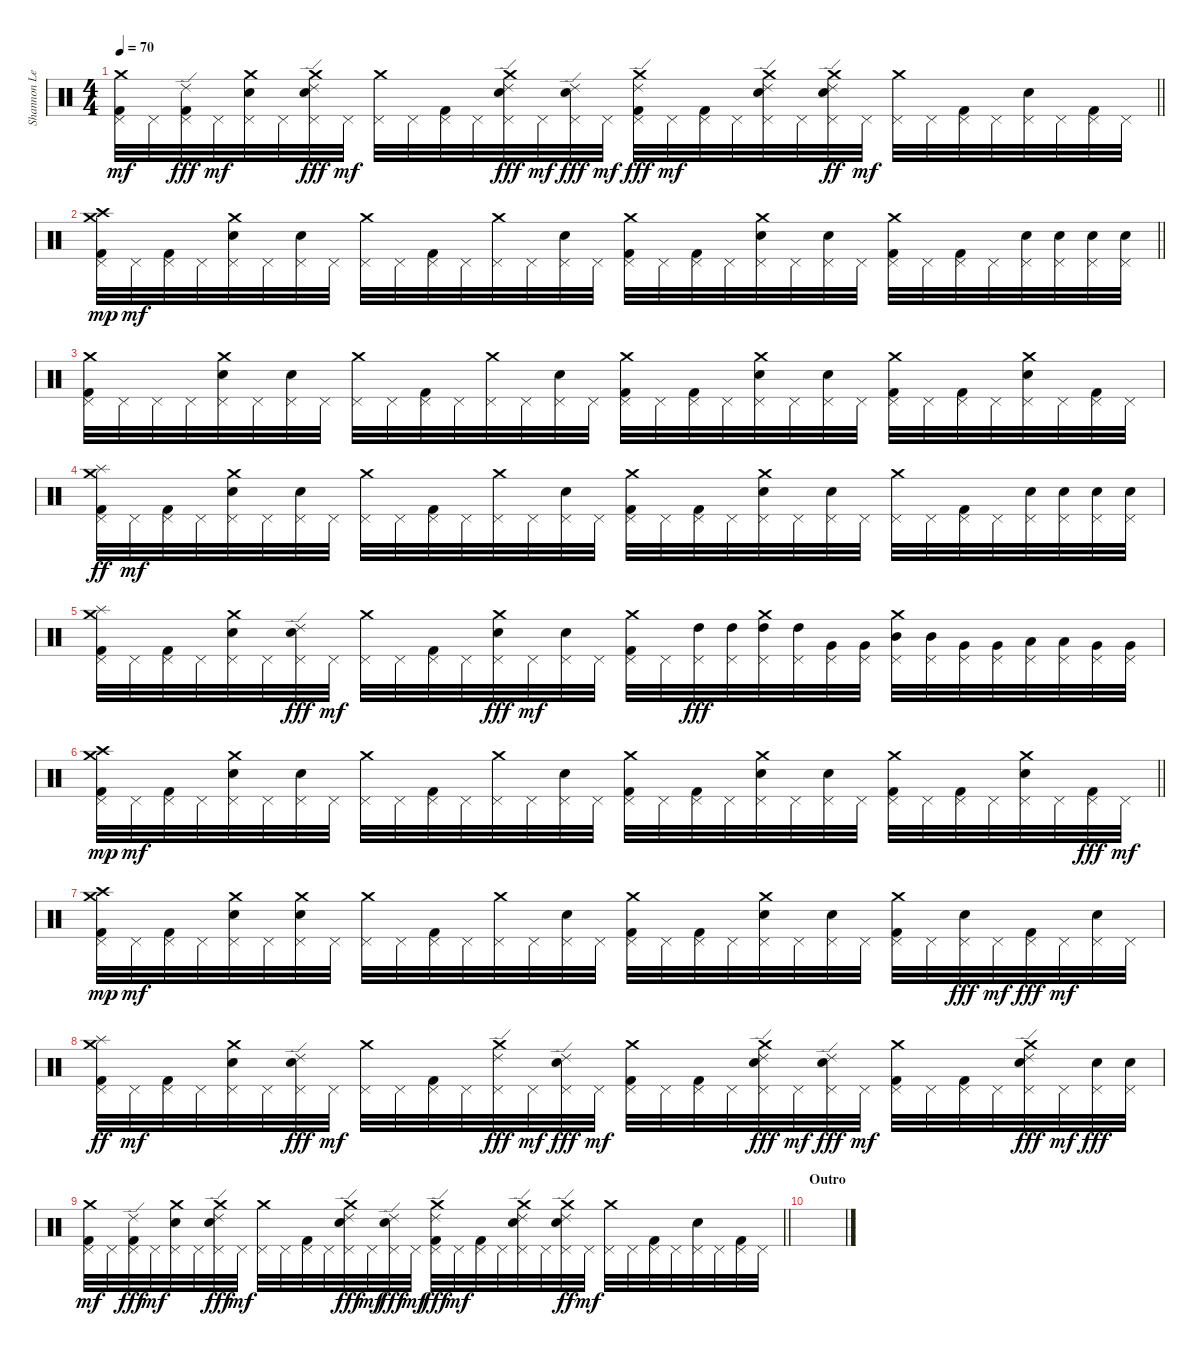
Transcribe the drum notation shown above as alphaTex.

\track ("Shannon Leto - Drums" "Shannon Le") {instrument percussion}
\staff {score}
\articulation defaults
\ts (4 4)
\tempo 70
\clef neutral
\barLineRight lightlight
\ks c
("Crash medium (hit)" "Pedal Hi-Hat (hit)" "Kick (hit) 2").32{dy mf} "Pedal Hi-Hat (hit)".32 ("Pedal Hi-Hat (hit)" "Ride (edge) 2" "Kick (hit) 2").32{dy fff} "Pedal Hi-Hat (hit)".32{dy mf} ("Crash medium (hit)" "Pedal Hi-Hat (hit)" "Electric Snare (hit)").32 "Pedal Hi-Hat (hit)".32 ("Crash medium (hit)" "Pedal Hi-Hat (hit)" "Electric Snare (hit)" "Ride (edge) 2").32{dy fff} "Pedal Hi-Hat (hit)".32{dy mf} ("Crash medium (hit)" "Pedal Hi-Hat (hit)").32 "Pedal Hi-Hat (hit)".32 ("Pedal Hi-Hat (hit)" "Kick (hit) 2").32 "Pedal Hi-Hat (hit)".32 ("Crash medium (hit)" "Pedal Hi-Hat (hit)" "Electric Snare (hit)" "Ride (edge) 2").32{dy fff} "Pedal Hi-Hat (hit)".32{dy mf} ("Pedal Hi-Hat (hit)" "Electric Snare (hit)" "Ride (edge) 2").32{dy fff} "Pedal Hi-Hat (hit)".32{dy mf} ("Crash medium (hit)" "Pedal Hi-Hat (hit)" "Ride (edge) 2" "Kick (hit) 2").32{dy fff} "Pedal Hi-Hat (hit)".32{dy mf} ("Pedal Hi-Hat (hit)" "Kick (hit) 2").32 "Pedal Hi-Hat (hit)".32 ("Crash medium (hit)" "Pedal Hi-Hat (hit)" "Electric Snare (hit)" "Ride (edge) 2").32 "Pedal Hi-Hat (hit)".32 ("Crash medium (hit)" "Pedal Hi-Hat (hit)" "Electric Snare (hit)" "Ride (edge) 2").32{dy ff} "Pedal Hi-Hat (hit)".32{dy mf} ("Crash medium (hit)" "Pedal Hi-Hat (hit)").32 "Pedal Hi-Hat (hit)".32 ("Pedal Hi-Hat (hit)" "Kick (hit) 2").32 "Pedal Hi-Hat (hit)".32 ("Pedal Hi-Hat (hit)" "Electric Snare (hit)").32 "Pedal Hi-Hat (hit)".32 ("Pedal Hi-Hat (hit)" "Kick (hit) 2").32 "Pedal Hi-Hat (hit)".32 |
\section ("" "")
\barLineRight lightlight
("Crash medium (hit)" "Pedal Hi-Hat (hit)" "Crash high (hit)" "Kick (hit) 2").32{dy mp} "Pedal Hi-Hat (hit)".32{dy mf} ("Pedal Hi-Hat (hit)" "Kick (hit) 2").32 "Pedal Hi-Hat (hit)".32 ("Crash medium (hit)" "Pedal Hi-Hat (hit)" "Electric Snare (hit)").32 "Pedal Hi-Hat (hit)".32 ("Pedal Hi-Hat (hit)" "Electric Snare (hit)").32 "Pedal Hi-Hat (hit)".32 ("Crash medium (hit)" "Pedal Hi-Hat (hit)").32 "Pedal Hi-Hat (hit)".32 ("Pedal Hi-Hat (hit)" "Kick (hit) 2").32 "Pedal Hi-Hat (hit)".32 ("Crash medium (hit)" "Pedal Hi-Hat (hit)").32 "Pedal Hi-Hat (hit)".32 ("Pedal Hi-Hat (hit)" "Electric Snare (hit)").32 "Pedal Hi-Hat (hit)".32 ("Crash medium (hit)" "Pedal Hi-Hat (hit)" "Kick (hit) 2").32 "Pedal Hi-Hat (hit)".32 ("Pedal Hi-Hat (hit)" "Kick (hit) 2").32 "Pedal Hi-Hat (hit)".32 ("Crash medium (hit)" "Pedal Hi-Hat (hit)" "Electric Snare (hit)").32 "Pedal Hi-Hat (hit)".32 ("Pedal Hi-Hat (hit)" "Electric Snare (hit)").32 "Pedal Hi-Hat (hit)".32 ("Crash medium (hit)" "Pedal Hi-Hat (hit)" "Kick (hit) 2").32 "Pedal Hi-Hat (hit)".32 ("Pedal Hi-Hat (hit)" "Kick (hit) 2").32 "Pedal Hi-Hat (hit)".32 ("Pedal Hi-Hat (hit)" "Electric Snare (hit)").32 ("Pedal Hi-Hat (hit)" "Electric Snare (hit)").32 ("Pedal Hi-Hat (hit)" "Electric Snare (hit)").32 ("Pedal Hi-Hat (hit)" "Electric Snare (hit)").32 |
("Crash medium (hit)" "Pedal Hi-Hat (hit)" "Kick (hit) 2").32 "Pedal Hi-Hat (hit)".32 "Pedal Hi-Hat (hit)".32 "Pedal Hi-Hat (hit)".32 ("Crash medium (hit)" "Pedal Hi-Hat (hit)" "Electric Snare (hit)").32 "Pedal Hi-Hat (hit)".32 ("Pedal Hi-Hat (hit)" "Electric Snare (hit)").32 "Pedal Hi-Hat (hit)".32 ("Crash medium (hit)" "Pedal Hi-Hat (hit)").32 "Pedal Hi-Hat (hit)".32 ("Pedal Hi-Hat (hit)" "Kick (hit) 2").32 "Pedal Hi-Hat (hit)".32 ("Crash medium (hit)" "Pedal Hi-Hat (hit)").32 "Pedal Hi-Hat (hit)".32 ("Pedal Hi-Hat (hit)" "Electric Snare (hit)").32 "Pedal Hi-Hat (hit)".32 ("Crash medium (hit)" "Pedal Hi-Hat (hit)" "Kick (hit) 2").32 "Pedal Hi-Hat (hit)".32 ("Pedal Hi-Hat (hit)" "Kick (hit) 2").32 "Pedal Hi-Hat (hit)".32 ("Crash medium (hit)" "Pedal Hi-Hat (hit)" "Electric Snare (hit)").32 "Pedal Hi-Hat (hit)".32 ("Pedal Hi-Hat (hit)" "Electric Snare (hit)").32 "Pedal Hi-Hat (hit)".32 ("Crash medium (hit)" "Pedal Hi-Hat (hit)" "Kick (hit) 2").32 "Pedal Hi-Hat (hit)".32 ("Pedal Hi-Hat (hit)" "Kick (hit) 2").32 "Pedal Hi-Hat (hit)".32 ("Crash medium (hit)" "Pedal Hi-Hat (hit)" "Electric Snare (hit)").32 "Pedal Hi-Hat (hit)".32 ("Pedal Hi-Hat (hit)" "Kick (hit) 2").32 "Pedal Hi-Hat (hit)".32 |
("Crash medium (hit)" "Pedal Hi-Hat (hit)" "Splash (hit)" "Kick (hit) 2").32{dy ff} "Pedal Hi-Hat (hit)".32{dy mf} ("Pedal Hi-Hat (hit)" "Kick (hit) 2").32 "Pedal Hi-Hat (hit)".32 ("Crash medium (hit)" "Pedal Hi-Hat (hit)" "Electric Snare (hit)").32 "Pedal Hi-Hat (hit)".32 ("Pedal Hi-Hat (hit)" "Electric Snare (hit)").32 "Pedal Hi-Hat (hit)".32 ("Crash medium (hit)" "Pedal Hi-Hat (hit)").32 "Pedal Hi-Hat (hit)".32 ("Pedal Hi-Hat (hit)" "Kick (hit) 2").32 "Pedal Hi-Hat (hit)".32 ("Crash medium (hit)" "Pedal Hi-Hat (hit)").32 "Pedal Hi-Hat (hit)".32 ("Pedal Hi-Hat (hit)" "Electric Snare (hit)").32 "Pedal Hi-Hat (hit)".32 ("Crash medium (hit)" "Pedal Hi-Hat (hit)" "Kick (hit) 2").32 "Pedal Hi-Hat (hit)".32 ("Pedal Hi-Hat (hit)" "Kick (hit) 2").32 "Pedal Hi-Hat (hit)".32 ("Crash medium (hit)" "Pedal Hi-Hat (hit)" "Electric Snare (hit)").32 "Pedal Hi-Hat (hit)".32 ("Pedal Hi-Hat (hit)" "Electric Snare (hit)").32 "Pedal Hi-Hat (hit)".32 ("Crash medium (hit)" "Pedal Hi-Hat (hit)").32 "Pedal Hi-Hat (hit)".32 ("Pedal Hi-Hat (hit)" "Kick (hit) 2").32 "Pedal Hi-Hat (hit)".32 ("Pedal Hi-Hat (hit)" "Electric Snare (hit)").32 ("Pedal Hi-Hat (hit)" "Electric Snare (hit)").32 ("Pedal Hi-Hat (hit)" "Electric Snare (hit)").32 ("Pedal Hi-Hat (hit)" "Electric Snare (hit)").32 |
("Crash medium (hit)" "Pedal Hi-Hat (hit)" "Splash (hit)" "Kick (hit) 2").32 "Pedal Hi-Hat (hit)".32 ("Pedal Hi-Hat (hit)" "Kick (hit) 2").32 "Pedal Hi-Hat (hit)".32 ("Crash medium (hit)" "Pedal Hi-Hat (hit)" "Electric Snare (hit)").32 "Pedal Hi-Hat (hit)".32 ("Pedal Hi-Hat (hit)" "Electric Snare (hit)" "Ride (edge) 2").32{dy fff} "Pedal Hi-Hat (hit)".32{dy mf} ("Crash medium (hit)" "Pedal Hi-Hat (hit)").32 "Pedal Hi-Hat (hit)".32 ("Pedal Hi-Hat (hit)" "Kick (hit) 2").32 "Pedal Hi-Hat (hit)".32 ("Crash medium (hit)" "Pedal Hi-Hat (hit)" "Electric Snare (hit)").32{dy fff} "Pedal Hi-Hat (hit)".32{dy mf} ("Pedal Hi-Hat (hit)" "Electric Snare (hit)").32 "Pedal Hi-Hat (hit)".32 ("Crash medium (hit)" "Pedal Hi-Hat (hit)" "Kick (hit) 2").32 "Pedal Hi-Hat (hit)".32 ("Pedal Hi-Hat (hit)" "High Tom (hit)").32{dy fff} ("Pedal Hi-Hat (hit)" "High Tom (hit)").32 ("Crash medium (hit)" "Pedal Hi-Hat (hit)" "High Tom (hit)").32 ("Pedal Hi-Hat (hit)" "High Tom (hit)").32 ("Pedal Hi-Hat (hit)" "Very Low Tom (hit)").32 ("Pedal Hi-Hat (hit)" "Very Low Tom (hit)").32 ("Crash medium (hit)" "Pedal Hi-Hat (hit)" "Mid Tom (hit)").32 ("Pedal Hi-Hat (hit)" "Mid Tom (hit)").32 ("Pedal Hi-Hat (hit)" "Very Low Tom (hit)").32 ("Pedal Hi-Hat (hit)" "Very Low Tom (hit)").32 ("Pedal Hi-Hat (hit)" "Low Tom (hit)").32 ("Pedal Hi-Hat (hit)" "Low Tom (hit)").32 ("Pedal Hi-Hat (hit)" "Very Low Tom (hit)").32 ("Pedal Hi-Hat (hit)" "Very Low Tom (hit)").32 |
\barLineRight lightlight
("Crash medium (hit)" "Pedal Hi-Hat (hit)" "Crash high (hit)" "Kick (hit) 2").32{dy mp} "Pedal Hi-Hat (hit)".32{dy mf} ("Pedal Hi-Hat (hit)" "Kick (hit) 2").32 "Pedal Hi-Hat (hit)".32 ("Crash medium (hit)" "Pedal Hi-Hat (hit)" "Electric Snare (hit)").32 "Pedal Hi-Hat (hit)".32 ("Pedal Hi-Hat (hit)" "Electric Snare (hit)").32 "Pedal Hi-Hat (hit)".32 ("Crash medium (hit)" "Pedal Hi-Hat (hit)").32 "Pedal Hi-Hat (hit)".32 ("Pedal Hi-Hat (hit)" "Kick (hit) 2").32 "Pedal Hi-Hat (hit)".32 ("Crash medium (hit)" "Pedal Hi-Hat (hit)").32 "Pedal Hi-Hat (hit)".32 ("Pedal Hi-Hat (hit)" "Electric Snare (hit)").32 "Pedal Hi-Hat (hit)".32 ("Crash medium (hit)" "Pedal Hi-Hat (hit)" "Kick (hit) 2").32 "Pedal Hi-Hat (hit)".32 ("Pedal Hi-Hat (hit)" "Kick (hit) 2").32 "Pedal Hi-Hat (hit)".32 ("Crash medium (hit)" "Pedal Hi-Hat (hit)" "Electric Snare (hit)").32 "Pedal Hi-Hat (hit)".32 ("Pedal Hi-Hat (hit)" "Electric Snare (hit)").32 "Pedal Hi-Hat (hit)".32 ("Crash medium (hit)" "Pedal Hi-Hat (hit)" "Kick (hit) 2").32 "Pedal Hi-Hat (hit)".32 ("Pedal Hi-Hat (hit)" "Kick (hit) 2").32 "Pedal Hi-Hat (hit)".32 ("Crash medium (hit)" "Pedal Hi-Hat (hit)" "Electric Snare (hit)").32 "Pedal Hi-Hat (hit)".32 ("Pedal Hi-Hat (hit)" "Kick (hit) 2").32{dy fff} "Pedal Hi-Hat (hit)".32{dy mf} |
("Crash medium (hit)" "Pedal Hi-Hat (hit)" "Crash high (hit)" "Kick (hit) 2").32{dy mp} "Pedal Hi-Hat (hit)".32{dy mf} ("Pedal Hi-Hat (hit)" "Kick (hit) 2").32 "Pedal Hi-Hat (hit)".32 ("Crash medium (hit)" "Pedal Hi-Hat (hit)" "Electric Snare (hit)").32 "Pedal Hi-Hat (hit)".32 ("Crash medium (hit)" "Pedal Hi-Hat (hit)" "Electric Snare (hit)").32 "Pedal Hi-Hat (hit)".32 ("Crash medium (hit)" "Pedal Hi-Hat (hit)").32 "Pedal Hi-Hat (hit)".32 ("Pedal Hi-Hat (hit)" "Kick (hit) 2").32 "Pedal Hi-Hat (hit)".32 ("Crash medium (hit)" "Pedal Hi-Hat (hit)").32 "Pedal Hi-Hat (hit)".32 ("Pedal Hi-Hat (hit)" "Electric Snare (hit)").32 "Pedal Hi-Hat (hit)".32 ("Crash medium (hit)" "Pedal Hi-Hat (hit)" "Kick (hit) 2").32 "Pedal Hi-Hat (hit)".32 ("Pedal Hi-Hat (hit)" "Kick (hit) 2").32 "Pedal Hi-Hat (hit)".32 ("Crash medium (hit)" "Pedal Hi-Hat (hit)" "Electric Snare (hit)").32 "Pedal Hi-Hat (hit)".32 ("Pedal Hi-Hat (hit)" "Electric Snare (hit)").32 "Pedal Hi-Hat (hit)".32 ("Crash medium (hit)" "Pedal Hi-Hat (hit)" "Kick (hit) 2").32 "Pedal Hi-Hat (hit)".32 ("Pedal Hi-Hat (hit)" "Electric Snare (hit)").32{dy fff} "Pedal Hi-Hat (hit)".32{dy mf} ("Pedal Hi-Hat (hit)" "Kick (hit) 2").32{dy fff} "Pedal Hi-Hat (hit)".32{dy mf} ("Pedal Hi-Hat (hit)" "Electric Snare (hit)").32 "Pedal Hi-Hat (hit)".32 |
("Crash medium (hit)" "Pedal Hi-Hat (hit)" "Splash (hit)" "Kick (hit) 2").32{dy ff} "Pedal Hi-Hat (hit)".32{dy mf} ("Pedal Hi-Hat (hit)" "Kick (hit) 2").32 "Pedal Hi-Hat (hit)".32 ("Crash medium (hit)" "Pedal Hi-Hat (hit)" "Electric Snare (hit)").32 "Pedal Hi-Hat (hit)".32 ("Pedal Hi-Hat (hit)" "Electric Snare (hit)" "Ride (edge) 2").32{dy fff} "Pedal Hi-Hat (hit)".32{dy mf} ("Crash medium (hit)" "Pedal Hi-Hat (hit)").32 "Pedal Hi-Hat (hit)".32 ("Pedal Hi-Hat (hit)" "Kick (hit) 2").32 "Pedal Hi-Hat (hit)".32 ("Crash medium (hit)" "Pedal Hi-Hat (hit)" "Ride (edge) 2").32{dy fff} "Pedal Hi-Hat (hit)".32{dy mf} ("Pedal Hi-Hat (hit)" "Electric Snare (hit)" "Ride (edge) 2").32{dy fff} "Pedal Hi-Hat (hit)".32{dy mf} ("Crash medium (hit)" "Pedal Hi-Hat (hit)" "Kick (hit) 2").32 "Pedal Hi-Hat (hit)".32 ("Pedal Hi-Hat (hit)" "Kick (hit) 2").32 "Pedal Hi-Hat (hit)".32 ("Crash medium (hit)" "Pedal Hi-Hat (hit)" "Electric Snare (hit)" "Ride (edge) 2").32{dy fff} "Pedal Hi-Hat (hit)".32{dy mf} ("Pedal Hi-Hat (hit)" "Electric Snare (hit)" "Ride (edge) 2").32{dy fff} "Pedal Hi-Hat (hit)".32{dy mf} ("Crash medium (hit)" "Pedal Hi-Hat (hit)" "Kick (hit) 2").32 "Pedal Hi-Hat (hit)".32 ("Pedal Hi-Hat (hit)" "Kick (hit) 2").32 "Pedal Hi-Hat (hit)".32 ("Crash medium (hit)" "Pedal Hi-Hat (hit)" "Electric Snare (hit)" "Ride (edge) 2").32{dy fff} "Pedal Hi-Hat (hit)".32{dy mf} ("Pedal Hi-Hat (hit)" "Electric Snare (hit)").32{dy fff} ("Pedal Hi-Hat (hit)" "Electric Snare (hit)").32 |
\barLineRight lightlight
("Crash medium (hit)" "Pedal Hi-Hat (hit)" "Kick (hit) 2").32{dy mf} "Pedal Hi-Hat (hit)".32 ("Pedal Hi-Hat (hit)" "Ride (edge) 2" "Kick (hit) 2").32{dy fff} "Pedal Hi-Hat (hit)".32{dy mf} ("Crash medium (hit)" "Pedal Hi-Hat (hit)" "Electric Snare (hit)").32 "Pedal Hi-Hat (hit)".32 ("Crash medium (hit)" "Pedal Hi-Hat (hit)" "Electric Snare (hit)" "Ride (edge) 2").32{dy fff} "Pedal Hi-Hat (hit)".32{dy mf} ("Crash medium (hit)" "Pedal Hi-Hat (hit)").32 "Pedal Hi-Hat (hit)".32 ("Pedal Hi-Hat (hit)" "Kick (hit) 2").32 "Pedal Hi-Hat (hit)".32 ("Crash medium (hit)" "Pedal Hi-Hat (hit)" "Electric Snare (hit)" "Ride (edge) 2").32{dy fff} "Pedal Hi-Hat (hit)".32{dy mf} ("Pedal Hi-Hat (hit)" "Electric Snare (hit)" "Ride (edge) 2").32{dy fff} "Pedal Hi-Hat (hit)".32{dy mf} ("Crash medium (hit)" "Pedal Hi-Hat (hit)" "Ride (edge) 2" "Kick (hit) 2").32{dy fff} "Pedal Hi-Hat (hit)".32{dy mf} ("Pedal Hi-Hat (hit)" "Kick (hit) 2").32 "Pedal Hi-Hat (hit)".32 ("Crash medium (hit)" "Pedal Hi-Hat (hit)" "Electric Snare (hit)" "Ride (edge) 2").32 "Pedal Hi-Hat (hit)".32 ("Crash medium (hit)" "Pedal Hi-Hat (hit)" "Electric Snare (hit)" "Ride (edge) 2").32{dy ff} "Pedal Hi-Hat (hit)".32{dy mf} ("Crash medium (hit)" "Pedal Hi-Hat (hit)").32 "Pedal Hi-Hat (hit)".32 ("Pedal Hi-Hat (hit)" "Kick (hit) 2").32 "Pedal Hi-Hat (hit)".32 ("Pedal Hi-Hat (hit)" "Electric Snare (hit)").32 "Pedal Hi-Hat (hit)".32 ("Pedal Hi-Hat (hit)" "Kick (hit) 2").32 "Pedal Hi-Hat (hit)".32 |
\section ("" "Outro")
